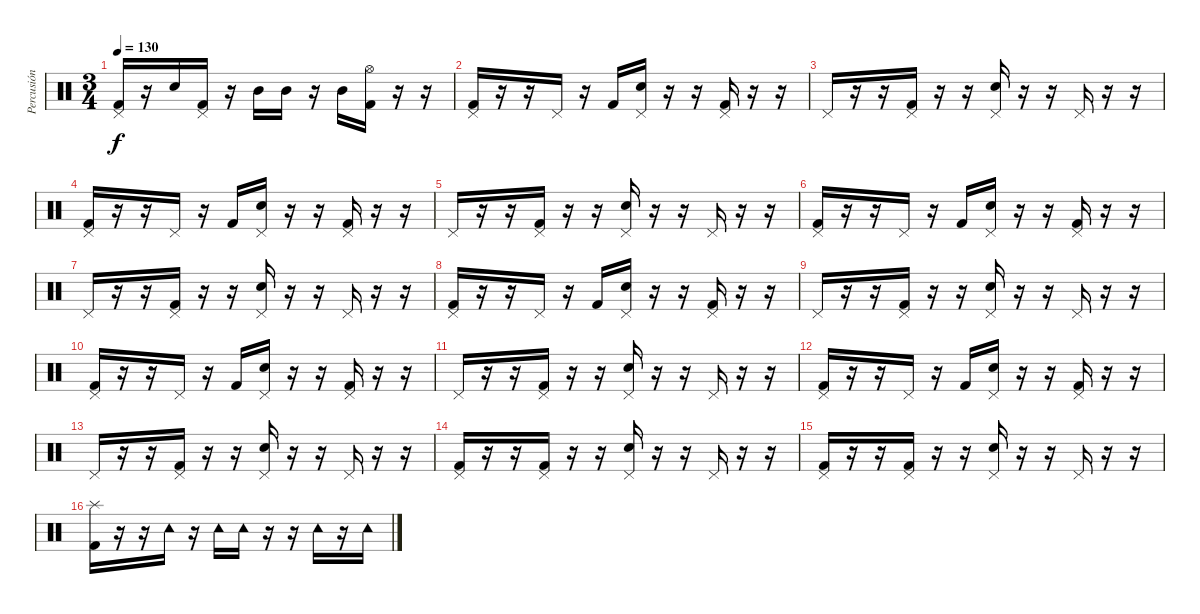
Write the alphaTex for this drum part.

\track ("Percusión" "Percusión") {instrument percussion}
\staff {score}
\articulation defaults
\ts (3 4)
\tempo 130
\clef neutral
\ks c
("Pedal Hi-Hat (hit)" "Kick (hit) 2").16{dy f} r.16 "Electric Snare (hit)".16 ("Pedal Hi-Hat (hit)" "Kick (hit) 2").16 r.16 "Mid Tom (hit)".16 "Mid Tom (hit)".16 r.16 "Mid Tom (hit)".16 ("Hi-Hat (open)" "Kick (hit) 2").16 r.16 r.16 |
("Pedal Hi-Hat (hit)" "Kick (hit) 2").16 r.16 r.16 "Pedal Hi-Hat (hit)".16 r.16 "Kick (hit) 2".16 ("Pedal Hi-Hat (hit)" "Electric Snare (hit)").16 r.16 r.16 ("Pedal Hi-Hat (hit)" "Kick (hit) 2").16 r.16 r.16 |
"Pedal Hi-Hat (hit)".16 r.16 r.16 ("Pedal Hi-Hat (hit)" "Kick (hit) 2").16 r.16 r.16 ("Pedal Hi-Hat (hit)" "Electric Snare (hit)").16 r.16 r.16 "Pedal Hi-Hat (hit)".16 r.16 r.16 |
("Pedal Hi-Hat (hit)" "Kick (hit) 2").16 r.16 r.16 "Pedal Hi-Hat (hit)".16 r.16 "Kick (hit) 2".16 ("Pedal Hi-Hat (hit)" "Electric Snare (hit)").16 r.16 r.16 ("Pedal Hi-Hat (hit)" "Kick (hit) 2").16 r.16 r.16 |
"Pedal Hi-Hat (hit)".16 r.16 r.16 ("Pedal Hi-Hat (hit)" "Kick (hit) 2").16 r.16 r.16 ("Pedal Hi-Hat (hit)" "Electric Snare (hit)").16 r.16 r.16 "Pedal Hi-Hat (hit)".16 r.16 r.16 |
("Pedal Hi-Hat (hit)" "Kick (hit) 2").16 r.16 r.16 "Pedal Hi-Hat (hit)".16 r.16 "Kick (hit) 2".16 ("Pedal Hi-Hat (hit)" "Electric Snare (hit)").16 r.16 r.16 ("Pedal Hi-Hat (hit)" "Kick (hit) 2").16 r.16 r.16 |
"Pedal Hi-Hat (hit)".16 r.16 r.16 ("Pedal Hi-Hat (hit)" "Kick (hit) 2").16 r.16 r.16 ("Pedal Hi-Hat (hit)" "Electric Snare (hit)").16 r.16 r.16 "Pedal Hi-Hat (hit)".16 r.16 r.16 |
("Pedal Hi-Hat (hit)" "Kick (hit) 2").16 r.16 r.16 "Pedal Hi-Hat (hit)".16 r.16 "Kick (hit) 2".16 ("Pedal Hi-Hat (hit)" "Electric Snare (hit)").16 r.16 r.16 ("Pedal Hi-Hat (hit)" "Kick (hit) 2").16 r.16 r.16 |
"Pedal Hi-Hat (hit)".16 r.16 r.16 ("Pedal Hi-Hat (hit)" "Kick (hit) 2").16 r.16 r.16 ("Pedal Hi-Hat (hit)" "Electric Snare (hit)").16 r.16 r.16 "Pedal Hi-Hat (hit)".16 r.16 r.16 |
("Pedal Hi-Hat (hit)" "Kick (hit) 2").16 r.16 r.16 "Pedal Hi-Hat (hit)".16 r.16 "Kick (hit) 2".16 ("Pedal Hi-Hat (hit)" "Electric Snare (hit)").16 r.16 r.16 ("Pedal Hi-Hat (hit)" "Kick (hit) 2").16 r.16 r.16 |
"Pedal Hi-Hat (hit)".16 r.16 r.16 ("Pedal Hi-Hat (hit)" "Kick (hit) 2").16 r.16 r.16 ("Pedal Hi-Hat (hit)" "Electric Snare (hit)").16 r.16 r.16 "Pedal Hi-Hat (hit)".16 r.16 r.16 |
("Pedal Hi-Hat (hit)" "Kick (hit) 2").16 r.16 r.16 "Pedal Hi-Hat (hit)".16 r.16 "Kick (hit) 2".16 ("Pedal Hi-Hat (hit)" "Electric Snare (hit)").16 r.16 r.16 ("Pedal Hi-Hat (hit)" "Kick (hit) 2").16 r.16 r.16 |
"Pedal Hi-Hat (hit)".16 r.16 r.16 ("Pedal Hi-Hat (hit)" "Kick (hit) 2").16 r.16 r.16 ("Pedal Hi-Hat (hit)" "Electric Snare (hit)").16 r.16 r.16 "Pedal Hi-Hat (hit)".16 r.16 r.16 |
("Pedal Hi-Hat (hit)" "Kick (hit) 2").16 r.16 r.16 ("Pedal Hi-Hat (hit)" "Kick (hit) 2").16 r.16 r.16 ("Pedal Hi-Hat (hit)" "Electric Snare (hit)").16 r.16 r.16 "Pedal Hi-Hat (hit)".16 r.16 r.16 |
("Pedal Hi-Hat (hit)" "Kick (hit) 2").16 r.16 r.16 ("Pedal Hi-Hat (hit)" "Kick (hit) 2").16 r.16 r.16 ("Pedal Hi-Hat (hit)" "Electric Snare (hit)").16 r.16 r.16 "Pedal Hi-Hat (hit)".16 r.16 r.16 |
("Splash (hit)" "Kick (hit) 2").16 r.16 r.16 "Tambourine (hit)".16 r.16 "Tambourine (hit)".16 "Tambourine (hit)".16 r.16 r.16 "Tambourine (hit)".16 r.16 "Tambourine (hit)".16
